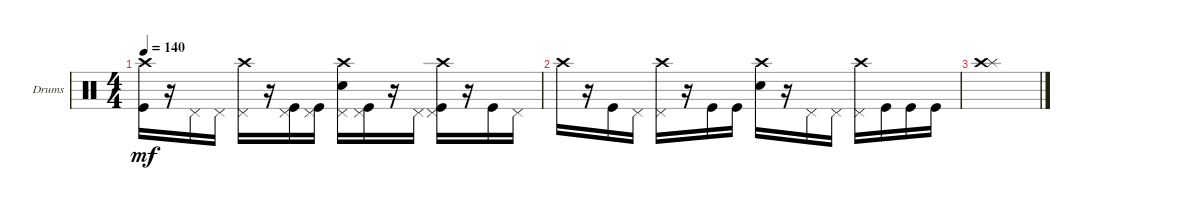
\bracketExtendMode groupsimilarinstruments
\firstSystemTrackNameOrientation horizontal
\otherSystemsTrackNameOrientation horizontal
\track ("Drumkit" "Drums") {instrument percussion}
\staff {score}
\articulation defaults
\ts (4 4)
\tempo 140
\clef neutral
\scale
0.333333
\ks c
("Crash high (hit)" "Kick (hit)").16{dy mf} r.16 "Pedal Hi-Hat (hit)".16 "Pedal Hi-Hat (hit)".16 ("Crash high (hit)" "Pedal Hi-Hat (hit)").16 r.16 ("Pedal Hi-Hat (hit)" "Kick (hit)").16 ("Pedal Hi-Hat (hit)" "Kick (hit)").16 ("Crash high (hit)" "Snare (hit) 2" "Pedal Hi-Hat (hit)").16 ("Pedal Hi-Hat (hit)" "Kick (hit)").16 r.16 "Pedal Hi-Hat (hit)".16 ("Crash high (hit)" "Kick (hit)" "Pedal Hi-Hat (hit)").16 r.16 "Kick (hit)".16 "Pedal Hi-Hat (hit)".16 |
\scale
0.333333 "Crash high (hit)".16 r.16 "Kick (hit)".16 "Pedal Hi-Hat (hit)".16 ("Crash high (hit)" "Pedal Hi-Hat (hit)").16 r.16 "Kick (hit)".16 "Kick (hit)".16 ("Crash high (hit)" "Snare (hit) 2").16 r.16 "Pedal Hi-Hat (hit)".16 "Pedal Hi-Hat (hit)".16 ("Crash high (hit)" "Pedal Hi-Hat (hit)").16 "Kick (hit)".16 "Kick (hit)".16 "Kick (hit)".16 |
\scale
0.333333 ("Splash (hit)" "Crash high (hit)").1 |
\scale
0.333333 |
\scale
0.333333
